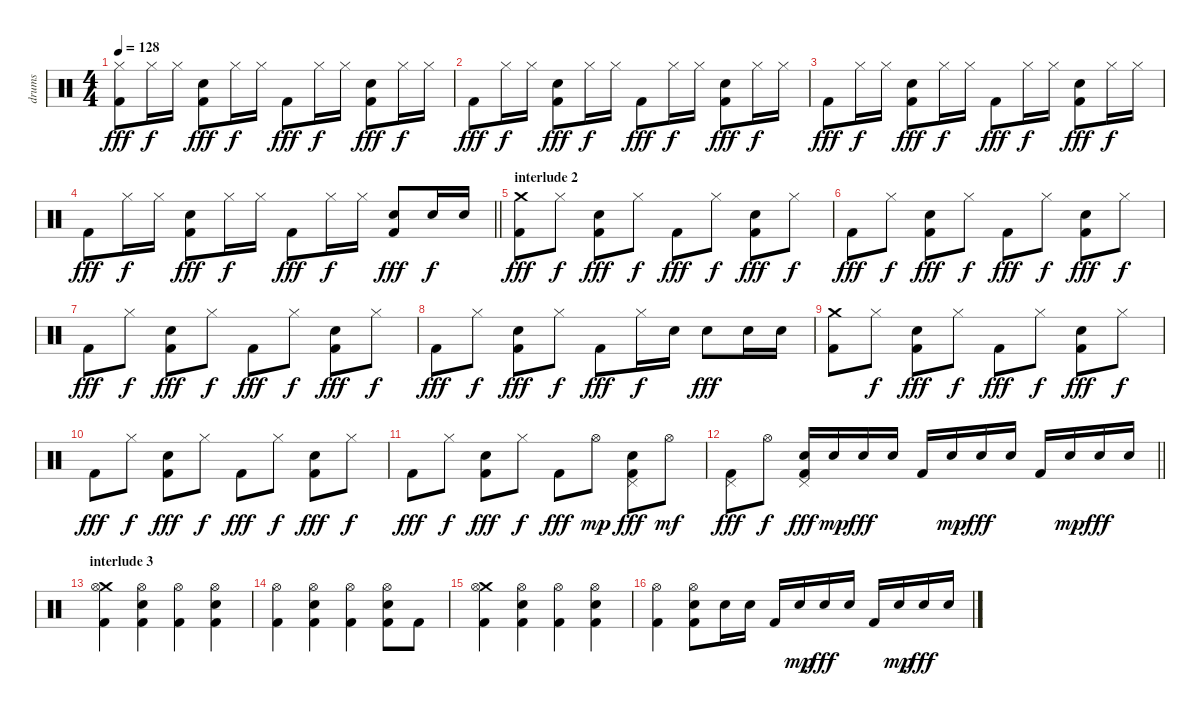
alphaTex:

\track ("drums" "drums") {instrument percussion}
\staff {score}
\articulation defaults
\ts (4 4)
\tempo 128
\clef neutral
\ks c
("Hi-Hat (closed)" "Kick (hit) 2").8{dy fff} "Hi-Hat (closed)".16{dy f} "Hi-Hat (closed)".16 ("Electric Snare (hit)" "Kick (hit) 2").8{dy fff} "Hi-Hat (closed)".16{dy f} "Hi-Hat (closed)".16 "Kick (hit) 2".8{dy fff} "Hi-Hat (closed)".16{dy f} "Hi-Hat (closed)".16 ("Electric Snare (hit)" "Kick (hit) 2").8{dy fff} "Hi-Hat (closed)".16{dy f} "Hi-Hat (closed)".16 |
"Kick (hit) 2".8{dy fff} "Hi-Hat (closed)".16{dy f} "Hi-Hat (closed)".16 ("Electric Snare (hit)" "Kick (hit) 2").8{dy fff} "Hi-Hat (closed)".16{dy f} "Hi-Hat (closed)".16 "Kick (hit) 2".8{dy fff} "Hi-Hat (closed)".16{dy f} "Hi-Hat (closed)".16 ("Electric Snare (hit)" "Kick (hit) 2").8{dy fff} "Hi-Hat (closed)".16{dy f} "Hi-Hat (closed)".16 |
"Kick (hit) 2".8{dy fff} "Hi-Hat (closed)".16{dy f} "Hi-Hat (closed)".16 ("Electric Snare (hit)" "Kick (hit) 2").8{dy fff} "Hi-Hat (closed)".16{dy f} "Hi-Hat (closed)".16 "Kick (hit) 2".8{dy fff} "Hi-Hat (closed)".16{dy f} "Hi-Hat (closed)".16 ("Electric Snare (hit)" "Kick (hit) 2").8{dy fff} "Hi-Hat (closed)".16{dy f} "Hi-Hat (closed)".16 |
\barLineRight lightlight "Kick (hit) 2".8{dy fff} "Hi-Hat (closed)".16{dy f} "Hi-Hat (closed)".16
("Electric Snare (hit)" "Kick (hit) 2").8{dy fff} "Hi-Hat (closed)".16{dy f} "Hi-Hat (closed)".16 "Kick (hit) 2".8{dy fff} "Hi-Hat (closed)".16{dy f} "Hi-Hat (closed)".16 ("Electric Snare (hit)" "Kick (hit) 2").8{dy fff} "Electric Snare (hit)".16{dy f} "Electric Snare (hit)".16 |
\section ("" "interlude 2")
("Crash medium (hit)" "Kick (hit) 2").8{dy fff} "Hi-Hat (closed)".8{dy f} ("Electric Snare (hit)" "Kick (hit) 2").8{dy fff} "Hi-Hat (closed)".8{dy f} "Kick (hit) 2".8{dy fff} "Hi-Hat (closed)".8{dy f} ("Electric Snare (hit)" "Kick (hit) 2").8{dy fff} "Hi-Hat (closed)".8{dy f} |
"Kick (hit) 2".8{dy fff} "Hi-Hat (closed)".8{dy f} ("Electric Snare (hit)" "Kick (hit) 2").8{dy fff} "Hi-Hat (closed)".8{dy f} "Kick (hit) 2".8{dy fff} "Hi-Hat (closed)".8{dy f} ("Electric Snare (hit)" "Kick (hit) 2").8{dy fff} "Hi-Hat (closed)".8{dy f} |
"Kick (hit) 2".8{dy fff} "Hi-Hat (closed)".8{dy f} ("Electric Snare (hit)" "Kick (hit) 2").8{dy fff} "Hi-Hat (closed)".8{dy f} "Kick (hit) 2".8{dy fff} "Hi-Hat (closed)".8{dy f} ("Electric Snare (hit)" "Kick (hit) 2").8{dy fff} "Hi-Hat (closed)".8{dy f} |
"Kick (hit) 2".8{dy fff} "Hi-Hat (closed)".8{dy f} ("Electric Snare (hit)" "Kick (hit) 2").8{dy fff} "Hi-Hat (closed)".8{dy f} "Kick (hit) 2".8{dy fff} "Hi-Hat (closed)".16{dy f} "Electric Snare (hit)".16 "Electric Snare (hit)".8{dy fff} "Electric Snare (hit)".16 "Electric Snare (hit)".16 |
("Crash medium (hit)" "Kick (hit) 2").8 "Hi-Hat (closed)".8{dy f} ("Electric Snare (hit)" "Kick (hit) 2").8{dy fff} "Hi-Hat (closed)".8{dy f} "Kick (hit) 2".8{dy fff} "Hi-Hat (closed)".8{dy f} ("Electric Snare (hit)" "Kick (hit) 2").8{dy fff} "Hi-Hat (closed)".8{dy f} |
"Kick (hit) 2".8{dy fff} "Hi-Hat (closed)".8{dy f} ("Electric Snare (hit)" "Kick (hit) 2").8{dy fff} "Hi-Hat (closed)".8{dy f} "Kick (hit) 2".8{dy fff} "Hi-Hat (closed)".8{dy f} ("Electric Snare (hit)" "Kick (hit) 2").8{dy fff} "Hi-Hat (closed)".8{dy f} |
"Kick (hit) 2".8{dy fff} "Hi-Hat (closed)".8{dy f} ("Electric Snare (hit)" "Kick (hit) 2").8{dy fff} "Hi-Hat (closed)".8{dy f} "Kick (hit) 2".8{dy fff} "Hi-Hat (open)".8{dy mp} ("Pedal Hi-Hat (hit)" "Electric Snare (hit)" "Kick (hit) 2").8{dy fff} "Hi-Hat (open)".8{dy mf} |
\barLineRight lightlight
("Pedal Hi-Hat (hit)" "Kick (hit) 2").8{dy fff} "Hi-Hat (open)".8{dy f} ("Pedal Hi-Hat (hit)" "Electric Snare (hit)" "Kick (hit) 2").16{dy fff} "Electric Snare (hit)".16{dy mp} "Electric Snare (hit)".16{dy fff} "Electric Snare (hit)".16 "Kick (hit) 2".16 "Electric Snare (hit)".16{dy mp} "Electric Snare (hit)".16{dy fff} "Electric Snare (hit)".16 "Kick (hit) 2".16 "Electric Snare (hit)".16{dy mp} "Electric Snare (hit)".16{dy fff} "Electric Snare (hit)".16 |
\section ("" "interlude 3")
("Crash medium (hit)" "Hi-Hat (open)" "Kick (hit) 2").4 ("Hi-Hat (open)" "Electric Snare (hit)" "Kick (hit) 2").4 ("Hi-Hat (open)" "Kick (hit) 2").4 ("Hi-Hat (open)" "Electric Snare (hit)" "Kick (hit) 2").4 |
("Hi-Hat (open)" "Kick (hit) 2").4 ("Hi-Hat (open)" "Electric Snare (hit)" "Kick (hit) 2").4 ("Hi-Hat (open)" "Kick (hit) 2").4 ("Hi-Hat (open)" "Electric Snare (hit)" "Kick (hit) 2").8 "Kick (hit) 2".8 |
("Crash medium (hit)" "Hi-Hat (open)" "Kick (hit) 2").4 ("Hi-Hat (open)" "Electric Snare (hit)" "Kick (hit) 2").4 ("Hi-Hat (open)" "Kick (hit) 2").4 ("Hi-Hat (open)" "Electric Snare (hit)" "Kick (hit) 2").4 |
("Hi-Hat (open)" "Kick (hit) 2").4 ("Hi-Hat (open)" "Electric Snare (hit)" "Kick (hit) 2").8 "Electric Snare (hit)".16 "Electric Snare (hit)".16 "Kick (hit) 2".16 "Electric Snare (hit)".16{dy mp} "Electric Snare (hit)".16{dy fff} "Electric Snare (hit)".16 "Kick (hit) 2".16 "Electric Snare (hit)".16{dy mp} "Electric Snare (hit)".16{dy fff} "Electric Snare (hit)".16
